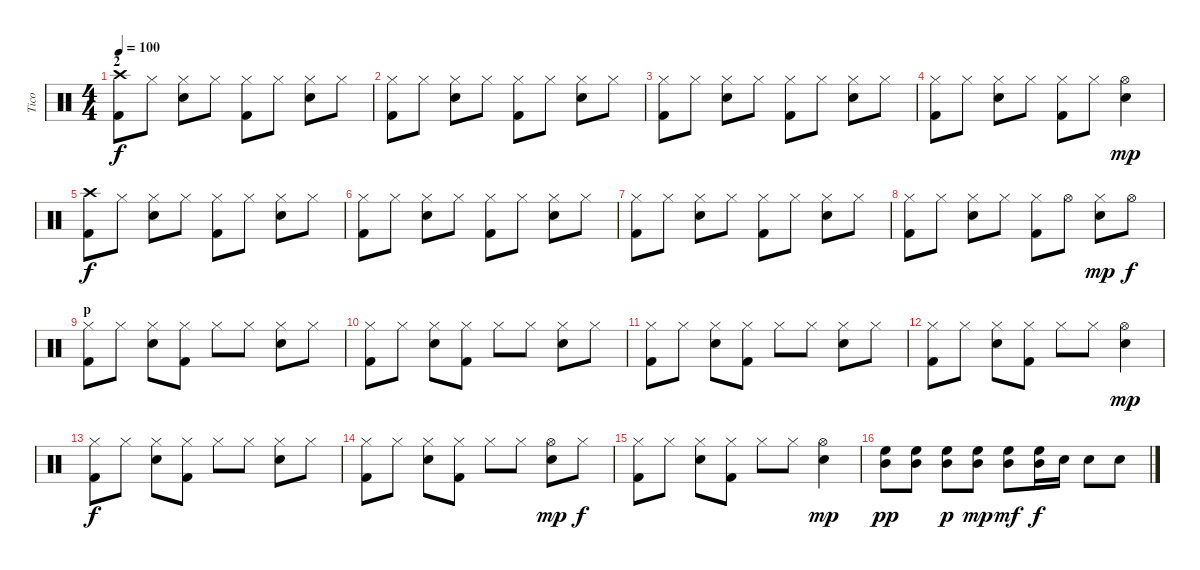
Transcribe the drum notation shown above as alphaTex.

\track ("Tico" "Tico") {instrument percussion}
\staff {score}
\articulation defaults
\ts (4 4)
\section ("" "2")
\tempo 100
\clef neutral
\ks c
("Crash high (hit)" "Kick (hit) 2").8{dy f} "Hi-Hat (closed)".8 ("Hi-Hat (closed)" "Snare (hit) 2").8 "Hi-Hat (closed)".8 ("Hi-Hat (closed)" "Kick (hit) 2").8 "Hi-Hat (closed)".8 ("Hi-Hat (closed)" "Snare (hit) 2").8 "Hi-Hat (closed)".8 |
("Hi-Hat (closed)" "Kick (hit) 2").8 "Hi-Hat (closed)".8 ("Hi-Hat (closed)" "Snare (hit) 2").8 "Hi-Hat (closed)".8 ("Hi-Hat (closed)" "Kick (hit) 2").8 "Hi-Hat (closed)".8 ("Hi-Hat (closed)" "Snare (hit) 2").8 "Hi-Hat (closed)".8 |
("Hi-Hat (closed)" "Kick (hit) 2").8 "Hi-Hat (closed)".8 ("Hi-Hat (closed)" "Snare (hit) 2").8 "Hi-Hat (closed)".8 ("Hi-Hat (closed)" "Kick (hit) 2").8 "Hi-Hat (closed)".8 ("Hi-Hat (closed)" "Snare (hit) 2").8 "Hi-Hat (closed)".8 |
("Hi-Hat (closed)" "Kick (hit) 2").8 "Hi-Hat (closed)".8 ("Hi-Hat (closed)" "Snare (hit) 2").8 "Hi-Hat (closed)".8 ("Hi-Hat (closed)" "Kick (hit) 2").8 "Hi-Hat (closed)".8 ("Hi-Hat (open)" "Snare (hit) 2").4{dy mp} |
("Crash high (hit)" "Kick (hit) 2").8{dy f} "Hi-Hat (closed)".8 ("Hi-Hat (closed)" "Snare (hit) 2").8 "Hi-Hat (closed)".8 ("Hi-Hat (closed)" "Kick (hit) 2").8 "Hi-Hat (closed)".8 ("Hi-Hat (closed)" "Snare (hit) 2").8 "Hi-Hat (closed)".8 |
("Hi-Hat (closed)" "Kick (hit) 2").8 "Hi-Hat (closed)".8 ("Hi-Hat (closed)" "Snare (hit) 2").8 "Hi-Hat (closed)".8 ("Hi-Hat (closed)" "Kick (hit) 2").8 "Hi-Hat (closed)".8 ("Hi-Hat (closed)" "Snare (hit) 2").8 "Hi-Hat (closed)".8 |
("Hi-Hat (closed)" "Kick (hit) 2").8 "Hi-Hat (closed)".8 ("Hi-Hat (closed)" "Snare (hit) 2").8 "Hi-Hat (closed)".8 ("Hi-Hat (closed)" "Kick (hit) 2").8 "Hi-Hat (closed)".8 ("Hi-Hat (closed)" "Snare (hit) 2").8 "Hi-Hat (closed)".8 |
("Hi-Hat (closed)" "Kick (hit) 2").8 "Hi-Hat (closed)".8 ("Hi-Hat (closed)" "Snare (hit) 2").8 "Hi-Hat (closed)".8 ("Hi-Hat (closed)" "Kick (hit) 2").8 "Hi-Hat (open)".8 ("Hi-Hat (closed)" "Snare (hit) 2").8{dy mp} "Hi-Hat (open)".8{dy f} |
\section ("" "p")
("Hi-Hat (closed)" "Kick (hit) 2").8 "Hi-Hat (closed)".8 ("Hi-Hat (closed)" "Snare (hit) 2").8 ("Hi-Hat (closed)" "Kick (hit) 2").8 "Hi-Hat (closed)".8 "Hi-Hat (closed)".8 ("Hi-Hat (closed)" "Snare (hit) 2").8 "Hi-Hat (closed)".8 |
("Hi-Hat (closed)" "Kick (hit) 2").8 "Hi-Hat (closed)".8 ("Hi-Hat (closed)" "Snare (hit) 2").8 ("Hi-Hat (closed)" "Kick (hit) 2").8 "Hi-Hat (closed)".8 "Hi-Hat (closed)".8 ("Hi-Hat (closed)" "Snare (hit) 2").8 "Hi-Hat (closed)".8 |
("Hi-Hat (closed)" "Kick (hit) 2").8 "Hi-Hat (closed)".8 ("Hi-Hat (closed)" "Snare (hit) 2").8 ("Hi-Hat (closed)" "Kick (hit) 2").8 "Hi-Hat (closed)".8 "Hi-Hat (closed)".8 ("Hi-Hat (closed)" "Snare (hit) 2").8 "Hi-Hat (closed)".8 |
("Hi-Hat (closed)" "Kick (hit) 2").8 "Hi-Hat (closed)".8 ("Hi-Hat (closed)" "Snare (hit) 2").8 ("Hi-Hat (closed)" "Kick (hit) 2").8 "Hi-Hat (closed)".8 "Hi-Hat (closed)".8 ("Hi-Hat (open)" "Snare (hit) 2").4{dy mp} |
("Hi-Hat (closed)" "Kick (hit) 2").8{dy f} "Hi-Hat (closed)".8 ("Hi-Hat (closed)" "Snare (hit) 2").8 ("Hi-Hat (closed)" "Kick (hit) 2").8 "Hi-Hat (closed)".8 "Hi-Hat (closed)".8 ("Hi-Hat (closed)" "Snare (hit) 2").8 "Hi-Hat (closed)".8 |
("Hi-Hat (closed)" "Kick (hit) 2").8 "Hi-Hat (closed)".8 ("Hi-Hat (closed)" "Snare (hit) 2").8 ("Hi-Hat (closed)" "Kick (hit) 2").8 "Hi-Hat (closed)".8 "Hi-Hat (closed)".8 ("Hi-Hat (open)" "Snare (hit) 2").8{dy mp} "Hi-Hat (closed)".8{dy f} |
("Hi-Hat (closed)" "Kick (hit) 2").8 "Hi-Hat (closed)".8 ("Hi-Hat (closed)" "Snare (hit) 2").8 ("Hi-Hat (closed)" "Kick (hit) 2").8 "Hi-Hat (closed)".8 "Hi-Hat (closed)".8 ("Hi-Hat (open)" "Snare (hit) 2").4{dy mp} |
("Mid Tom (hit)" "High Floor Tom (hit)").8{dy pp} ("Mid Tom (hit)" "High Floor Tom (hit)").8 ("Mid Tom (hit)" "High Floor Tom (hit)").8{dy p} ("Mid Tom (hit)" "High Floor Tom (hit)").8{dy mp} ("Mid Tom (hit)" "High Floor Tom (hit)").8{dy mf} ("Mid Tom (hit)" "High Floor Tom (hit)").16{dy f} "Snare (hit) 2".16 "Snare (hit) 2".8 "Snare (hit) 2".8
